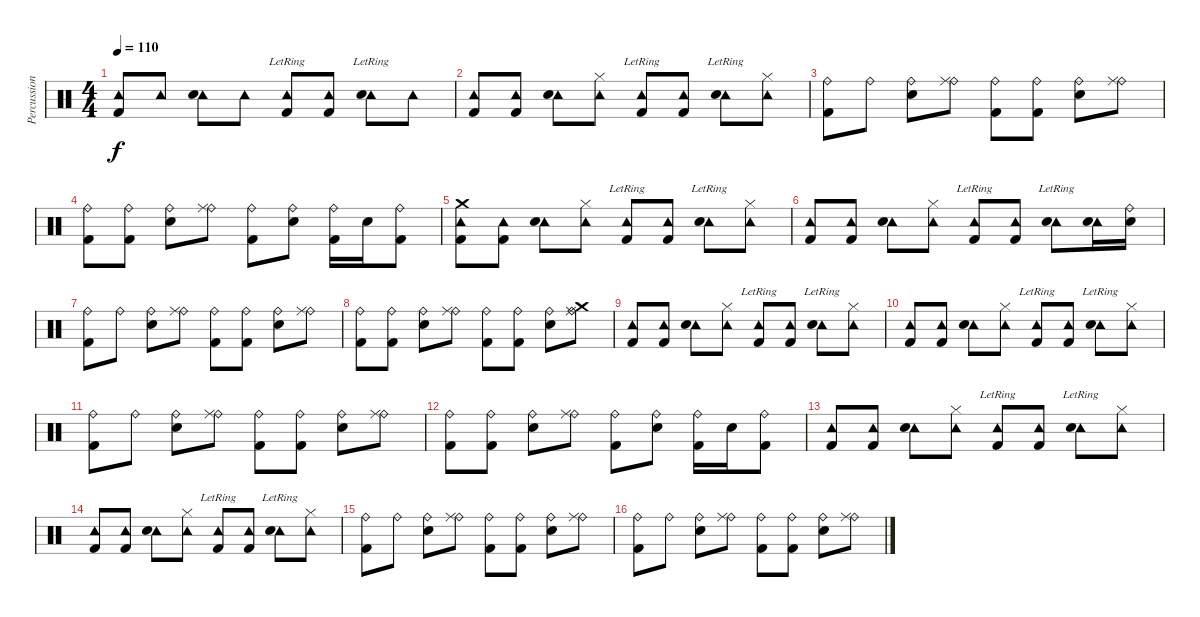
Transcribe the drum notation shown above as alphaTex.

\track ("Percussion" "Percussion") {instrument percussion}
\staff {score}
\articulation defaults
\ts (4 4)
\tempo 110
\clef neutral
\ks c
("Tambourine (hit)" "Kick (hit) 2").8{dy f} "Tambourine (hit)".8 ("Tambourine (hit)" "Electric Snare (hit)").8 "Tambourine (hit)".8 ("Tambourine (hit)"{lr} "Kick (hit) 2").8 ("Tambourine (hit)" "Kick (hit) 2").8 ("Tambourine (hit)"{lr} "Electric Snare (hit)").8 "Tambourine (hit)".8 |
("Tambourine (hit)" "Kick (hit) 2").8 ("Tambourine (hit)" "Kick (hit) 2").8 ("Tambourine (hit)" "Electric Snare (hit)").8 ("Tambourine (hit)" "Hi-Hat (closed)").8 ("Tambourine (hit)"{lr} "Kick (hit) 2").8 ("Tambourine (hit)" "Kick (hit) 2").8 ("Tambourine (hit)"{lr} "Electric Snare (hit)").8 ("Tambourine (hit)" "Hi-Hat (closed)").8 |
("Ride (bell)" "Kick (hit) 2").8 "Ride (bell)".8 ("Ride (bell)" "Electric Snare (hit)").8 ("Ride (bell)" "Ride (middle)").8 ("Ride (bell)" "Kick (hit) 2").8 ("Ride (bell)" "Kick (hit) 2").8 ("Ride (bell)" "Electric Snare (hit)").8 ("Ride (bell)" "Ride (middle)").8 |
("Ride (bell)" "Kick (hit) 2").8 ("Ride (bell)" "Kick (hit) 2").8 ("Ride (bell)" "Electric Snare (hit)").8 ("Ride (bell)" "Ride (middle)").8 ("Ride (bell)" "Kick (hit) 2").8 ("Ride (bell)" "Electric Snare (hit)").8 ("Ride (bell)" "Kick (hit) 2").16 "Electric Snare (hit)".16 ("Ride (bell)" "Kick (hit) 2").8 |
("Tambourine (hit)" "Crash medium (hit)" "Kick (hit) 2").8 ("Tambourine (hit)" "Kick (hit) 2").8 ("Tambourine (hit)" "Electric Snare (hit)").8 ("Tambourine (hit)" "Hi-Hat (closed)").8 ("Tambourine (hit)"{lr} "Kick (hit) 2").8 ("Tambourine (hit)" "Kick (hit) 2").8 ("Tambourine (hit)"{lr} "Electric Snare (hit)").8 ("Tambourine (hit)" "Hi-Hat (closed)").8 |
("Tambourine (hit)" "Kick (hit) 2").8 ("Tambourine (hit)" "Kick (hit) 2").8 ("Tambourine (hit)" "Electric Snare (hit)").8 ("Tambourine (hit)" "Hi-Hat (closed)").8 ("Tambourine (hit)"{lr} "Kick (hit) 2").8 ("Tambourine (hit)" "Kick (hit) 2").8 ("Tambourine (hit)"{lr} "Electric Snare (hit)").8 ("Tambourine (hit)" "Electric Snare (hit)").16 ("Ride (bell)" "Electric Snare (hit)").16 |
("Ride (bell)" "Kick (hit) 2").8 "Ride (bell)".8 ("Ride (bell)" "Electric Snare (hit)").8 ("Ride (bell)" "Ride (middle)").8 ("Ride (bell)" "Kick (hit) 2").8 ("Ride (bell)" "Kick (hit) 2").8 ("Ride (bell)" "Electric Snare (hit)").8 ("Ride (bell)" "Ride (middle)").8 |
("Ride (bell)" "Kick (hit) 2").8 ("Ride (bell)" "Kick (hit) 2").8 ("Ride (bell)" "Electric Snare (hit)").8 ("Ride (bell)" "Ride (middle)").8 ("Ride (bell)" "Kick (hit) 2").8 ("Ride (bell)" "Kick (hit) 2").8 ("Ride (bell)" "Electric Snare (hit)").8 ("Ride (bell)" "Ride (middle)" "Crash medium (hit)").8 |
("Tambourine (hit)" "Kick (hit) 2").8 ("Tambourine (hit)" "Kick (hit) 2").8 ("Tambourine (hit)" "Electric Snare (hit)").8 ("Tambourine (hit)" "Hi-Hat (closed)").8 ("Tambourine (hit)"{lr} "Kick (hit) 2").8 ("Tambourine (hit)" "Kick (hit) 2").8 ("Tambourine (hit)"{lr} "Electric Snare (hit)").8 ("Tambourine (hit)" "Hi-Hat (closed)").8 |
("Tambourine (hit)" "Kick (hit) 2").8 ("Tambourine (hit)" "Kick (hit) 2").8 ("Tambourine (hit)" "Electric Snare (hit)").8 ("Tambourine (hit)" "Hi-Hat (closed)").8 ("Tambourine (hit)"{lr} "Kick (hit) 2").8 ("Tambourine (hit)" "Kick (hit) 2").8 ("Tambourine (hit)"{lr} "Electric Snare (hit)").8 ("Tambourine (hit)" "Hi-Hat (closed)").8 |
("Ride (bell)" "Kick (hit) 2").8 "Ride (bell)".8 ("Ride (bell)" "Electric Snare (hit)").8 ("Ride (bell)" "Ride (middle)").8 ("Ride (bell)" "Kick (hit) 2").8 ("Ride (bell)" "Kick (hit) 2").8 ("Ride (bell)" "Electric Snare (hit)").8 ("Ride (bell)" "Ride (middle)").8 |
("Ride (bell)" "Kick (hit) 2").8 ("Ride (bell)" "Kick (hit) 2").8 ("Ride (bell)" "Electric Snare (hit)").8 ("Ride (bell)" "Ride (middle)").8 ("Ride (bell)" "Kick (hit) 2").8 ("Ride (bell)" "Electric Snare (hit)").8 ("Ride (bell)" "Kick (hit) 2").16 "Electric Snare (hit)".16 ("Ride (bell)" "Kick (hit) 2").8 |
("Tambourine (hit)" "Kick (hit) 2").8 ("Tambourine (hit)" "Kick (hit) 2").8 ("Tambourine (hit)" "Electric Snare (hit)").8 ("Tambourine (hit)" "Hi-Hat (closed)").8 ("Tambourine (hit)"{lr} "Kick (hit) 2").8 ("Tambourine (hit)" "Kick (hit) 2").8 ("Tambourine (hit)"{lr} "Electric Snare (hit)").8 ("Tambourine (hit)" "Hi-Hat (closed)").8 |
("Tambourine (hit)" "Kick (hit) 2").8 ("Tambourine (hit)" "Kick (hit) 2").8 ("Tambourine (hit)" "Electric Snare (hit)").8 ("Tambourine (hit)" "Hi-Hat (closed)").8 ("Tambourine (hit)"{lr} "Kick (hit) 2").8 ("Tambourine (hit)" "Kick (hit) 2").8 ("Tambourine (hit)"{lr} "Electric Snare (hit)").8 ("Tambourine (hit)" "Hi-Hat (closed)").8 |
("Ride (bell)" "Kick (hit) 2").8 "Ride (bell)".8 ("Ride (bell)" "Electric Snare (hit)").8 ("Ride (bell)" "Ride (middle)").8 ("Ride (bell)" "Kick (hit) 2").8 ("Ride (bell)" "Kick (hit) 2").8 ("Ride (bell)" "Electric Snare (hit)").8 ("Ride (bell)" "Ride (middle)").8 |
("Ride (bell)" "Kick (hit) 2").8 "Ride (bell)".8 ("Ride (bell)" "Electric Snare (hit)").8 ("Ride (bell)" "Ride (middle)").8 ("Ride (bell)" "Kick (hit) 2").8 ("Ride (bell)" "Kick (hit) 2").8 ("Ride (bell)" "Electric Snare (hit)").8 ("Ride (bell)" "Ride (middle)").8
